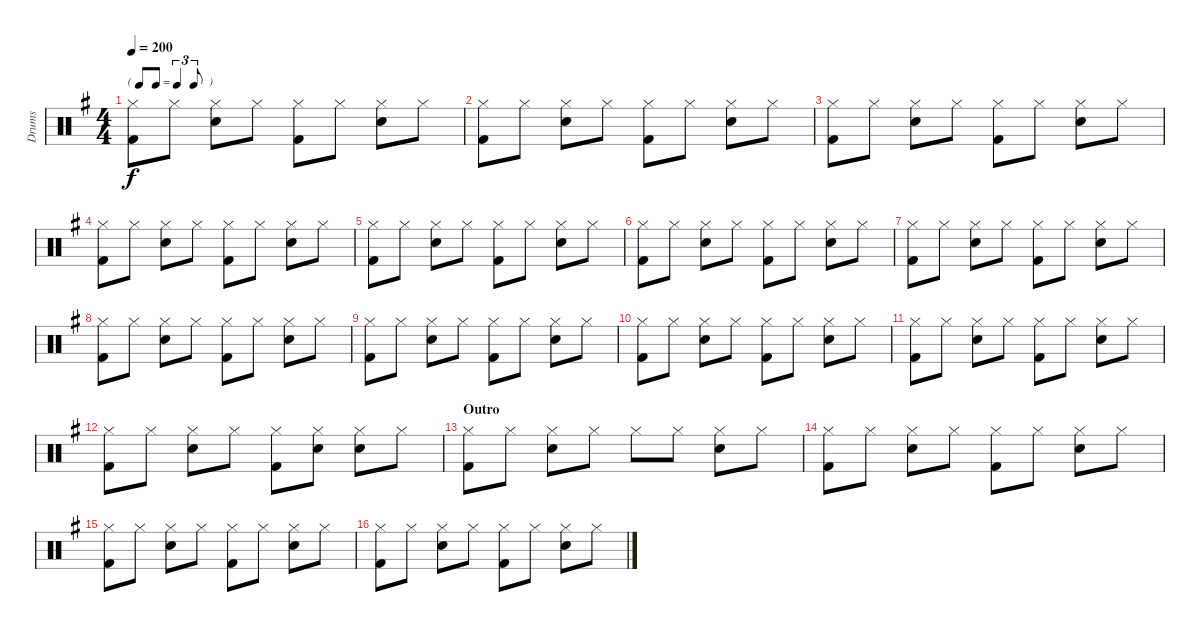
\track ("Drums" "Drums") {instrument percussion}
\staff {score}
\articulation defaults
\ts (4 4)
\tf triplet8th
\tempo 200
\clef neutral
\ks g
("Hi-Hat (closed)" "Kick (hit) 2").8{dy f} "Hi-Hat (closed)".8 ("Hi-Hat (closed)" "Snare (hit) 2").8 "Hi-Hat (closed)".8 ("Hi-Hat (closed)" "Kick (hit) 2").8 "Hi-Hat (closed)".8 ("Hi-Hat (closed)" "Snare (hit) 2").8 "Hi-Hat (closed)".8 |
("Hi-Hat (closed)" "Kick (hit) 2").8 "Hi-Hat (closed)".8 ("Hi-Hat (closed)" "Snare (hit) 2").8 "Hi-Hat (closed)".8 ("Hi-Hat (closed)" "Kick (hit) 2").8 "Hi-Hat (closed)".8 ("Hi-Hat (closed)" "Snare (hit) 2").8 "Hi-Hat (closed)".8 |
("Hi-Hat (closed)" "Kick (hit) 2").8 "Hi-Hat (closed)".8 ("Hi-Hat (closed)" "Snare (hit) 2").8 "Hi-Hat (closed)".8 ("Hi-Hat (closed)" "Kick (hit) 2").8 "Hi-Hat (closed)".8 ("Hi-Hat (closed)" "Snare (hit) 2").8 "Hi-Hat (closed)".8 |
("Hi-Hat (closed)" "Kick (hit) 2").8 "Hi-Hat (closed)".8 ("Hi-Hat (closed)" "Snare (hit) 2").8 "Hi-Hat (closed)".8 ("Hi-Hat (closed)" "Kick (hit) 2").8 "Hi-Hat (closed)".8 ("Hi-Hat (closed)" "Snare (hit) 2").8 "Hi-Hat (closed)".8 |
("Hi-Hat (closed)" "Kick (hit) 2").8 "Hi-Hat (closed)".8 ("Hi-Hat (closed)" "Snare (hit) 2").8 "Hi-Hat (closed)".8 ("Hi-Hat (closed)" "Kick (hit) 2").8 "Hi-Hat (closed)".8 ("Hi-Hat (closed)" "Snare (hit) 2").8 "Hi-Hat (closed)".8 |
("Hi-Hat (closed)" "Kick (hit) 2").8 "Hi-Hat (closed)".8 ("Hi-Hat (closed)" "Snare (hit) 2").8 "Hi-Hat (closed)".8 ("Hi-Hat (closed)" "Kick (hit) 2").8 "Hi-Hat (closed)".8 ("Hi-Hat (closed)" "Snare (hit) 2").8 "Hi-Hat (closed)".8 |
("Hi-Hat (closed)" "Kick (hit) 2").8 "Hi-Hat (closed)".8 ("Hi-Hat (closed)" "Snare (hit) 2").8 "Hi-Hat (closed)".8 ("Hi-Hat (closed)" "Kick (hit) 2").8 "Hi-Hat (closed)".8 ("Hi-Hat (closed)" "Snare (hit) 2").8 "Hi-Hat (closed)".8 |
("Hi-Hat (closed)" "Kick (hit) 2").8 "Hi-Hat (closed)".8 ("Hi-Hat (closed)" "Snare (hit) 2").8 "Hi-Hat (closed)".8 ("Hi-Hat (closed)" "Kick (hit) 2").8 "Hi-Hat (closed)".8 ("Hi-Hat (closed)" "Snare (hit) 2").8 "Hi-Hat (closed)".8 |
("Hi-Hat (closed)" "Kick (hit) 2").8 "Hi-Hat (closed)".8 ("Hi-Hat (closed)" "Snare (hit) 2").8 "Hi-Hat (closed)".8 ("Hi-Hat (closed)" "Kick (hit) 2").8 "Hi-Hat (closed)".8 ("Hi-Hat (closed)" "Snare (hit) 2").8 "Hi-Hat (closed)".8 |
("Hi-Hat (closed)" "Kick (hit) 2").8 "Hi-Hat (closed)".8 ("Hi-Hat (closed)" "Snare (hit) 2").8 "Hi-Hat (closed)".8 ("Hi-Hat (closed)" "Kick (hit) 2").8 "Hi-Hat (closed)".8 ("Hi-Hat (closed)" "Snare (hit) 2").8 "Hi-Hat (closed)".8 |
("Hi-Hat (closed)" "Kick (hit) 2").8 "Hi-Hat (closed)".8 ("Hi-Hat (closed)" "Snare (hit) 2").8 "Hi-Hat (closed)".8 ("Hi-Hat (closed)" "Kick (hit) 2").8 "Hi-Hat (closed)".8 ("Hi-Hat (closed)" "Snare (hit) 2").8 "Hi-Hat (closed)".8 |
("Hi-Hat (closed)" "Kick (hit) 2").8 "Hi-Hat (closed)".8 ("Hi-Hat (closed)" "Snare (hit) 2").8 "Hi-Hat (closed)".8 ("Hi-Hat (closed)" "Kick (hit) 2").8 ("Hi-Hat (closed)" "Snare (hit) 2").8 ("Hi-Hat (closed)" "Snare (hit) 2").8 "Hi-Hat (closed)".8 |
\section ("" "Outro")
("Hi-Hat (closed)" "Kick (hit) 2").8 "Hi-Hat (closed)".8 ("Hi-Hat (closed)" "Snare (hit) 2").8 "Hi-Hat (closed)".8 "Hi-Hat (closed)".8 "Hi-Hat (closed)".8 ("Hi-Hat (closed)" "Snare (hit) 2").8 "Hi-Hat (closed)".8 |
("Hi-Hat (closed)" "Kick (hit) 2").8 "Hi-Hat (closed)".8 ("Hi-Hat (closed)" "Snare (hit) 2").8 "Hi-Hat (closed)".8 ("Hi-Hat (closed)" "Kick (hit) 2").8 "Hi-Hat (closed)".8 ("Hi-Hat (closed)" "Snare (hit) 2").8 "Hi-Hat (closed)".8 |
("Hi-Hat (closed)" "Kick (hit) 2").8 "Hi-Hat (closed)".8 ("Hi-Hat (closed)" "Snare (hit) 2").8 "Hi-Hat (closed)".8 ("Hi-Hat (closed)" "Kick (hit) 2").8 "Hi-Hat (closed)".8 ("Hi-Hat (closed)" "Snare (hit) 2").8 "Hi-Hat (closed)".8 |
("Hi-Hat (closed)" "Kick (hit) 2").8 "Hi-Hat (closed)".8 ("Hi-Hat (closed)" "Snare (hit) 2").8 "Hi-Hat (closed)".8 ("Hi-Hat (closed)" "Kick (hit) 2").8 "Hi-Hat (closed)".8 ("Hi-Hat (closed)" "Snare (hit) 2").8 "Hi-Hat (closed)".8
